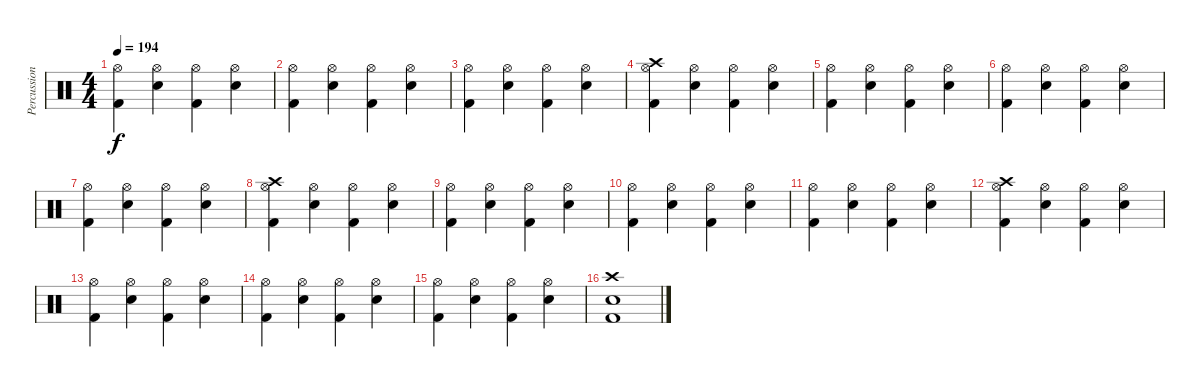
\track ("Percussion" "Percussion") {instrument percussion}
\staff {score}
\articulation defaults
\ts (4 4)
\tempo 194
\clef neutral
\ks c
("Hi-Hat (open)" "Kick (hit) 2").4{dy f} ("Hi-Hat (open)" "Electric Snare (hit)").4 ("Hi-Hat (open)" "Kick (hit) 2").4 ("Hi-Hat (open)" "Electric Snare (hit)").4 |
("Hi-Hat (open)" "Kick (hit) 2").4 ("Hi-Hat (open)" "Electric Snare (hit)").4 ("Hi-Hat (open)" "Kick (hit) 2").4 ("Hi-Hat (open)" "Electric Snare (hit)").4 |
("Hi-Hat (open)" "Kick (hit) 2").4 ("Hi-Hat (open)" "Electric Snare (hit)").4 ("Hi-Hat (open)" "Kick (hit) 2").4 ("Hi-Hat (open)" "Electric Snare (hit)").4 |
("Crash high (hit)" "Hi-Hat (open)" "Kick (hit) 2").4 ("Hi-Hat (open)" "Electric Snare (hit)").4 ("Hi-Hat (open)" "Kick (hit) 2").4 ("Hi-Hat (open)" "Electric Snare (hit)").4 |
("Hi-Hat (open)" "Kick (hit) 2").4 ("Hi-Hat (open)" "Electric Snare (hit)").4 ("Hi-Hat (open)" "Kick (hit) 2").4 ("Hi-Hat (open)" "Electric Snare (hit)").4 |
("Hi-Hat (open)" "Kick (hit) 2").4 ("Hi-Hat (open)" "Electric Snare (hit)").4 ("Hi-Hat (open)" "Kick (hit) 2").4 ("Hi-Hat (open)" "Electric Snare (hit)").4 |
("Hi-Hat (open)" "Kick (hit) 2").4 ("Hi-Hat (open)" "Electric Snare (hit)").4 ("Hi-Hat (open)" "Kick (hit) 2").4 ("Hi-Hat (open)" "Electric Snare (hit)").4 |
("Crash high (hit)" "Hi-Hat (open)" "Kick (hit) 2").4 ("Hi-Hat (open)" "Electric Snare (hit)").4 ("Hi-Hat (open)" "Kick (hit) 2").4 ("Hi-Hat (open)" "Electric Snare (hit)").4 |
("Hi-Hat (open)" "Kick (hit) 2").4 ("Hi-Hat (open)" "Electric Snare (hit)").4 ("Hi-Hat (open)" "Kick (hit) 2").4 ("Hi-Hat (open)" "Electric Snare (hit)").4 |
("Hi-Hat (open)" "Kick (hit) 2").4 ("Hi-Hat (open)" "Electric Snare (hit)").4 ("Hi-Hat (open)" "Kick (hit) 2").4 ("Hi-Hat (open)" "Electric Snare (hit)").4 |
("Hi-Hat (open)" "Kick (hit) 2").4 ("Hi-Hat (open)" "Electric Snare (hit)").4 ("Hi-Hat (open)" "Kick (hit) 2").4 ("Hi-Hat (open)" "Electric Snare (hit)").4 |
("Crash high (hit)" "Hi-Hat (open)" "Kick (hit) 2").4 ("Hi-Hat (open)" "Electric Snare (hit)").4 ("Hi-Hat (open)" "Kick (hit) 2").4 ("Hi-Hat (open)" "Electric Snare (hit)").4 |
("Hi-Hat (open)" "Kick (hit) 2").4 ("Hi-Hat (open)" "Electric Snare (hit)").4 ("Hi-Hat (open)" "Kick (hit) 2").4 ("Hi-Hat (open)" "Electric Snare (hit)").4 |
("Hi-Hat (open)" "Kick (hit) 2").4 ("Hi-Hat (open)" "Electric Snare (hit)").4 ("Hi-Hat (open)" "Kick (hit) 2").4 ("Hi-Hat (open)" "Electric Snare (hit)").4 |
("Hi-Hat (open)" "Kick (hit) 2").4 ("Hi-Hat (open)" "Electric Snare (hit)").4 ("Hi-Hat (open)" "Kick (hit) 2").4 ("Hi-Hat (open)" "Electric Snare (hit)").4 |
("Crash high (hit)" "Electric Snare (hit)" "Kick (hit) 2").1
